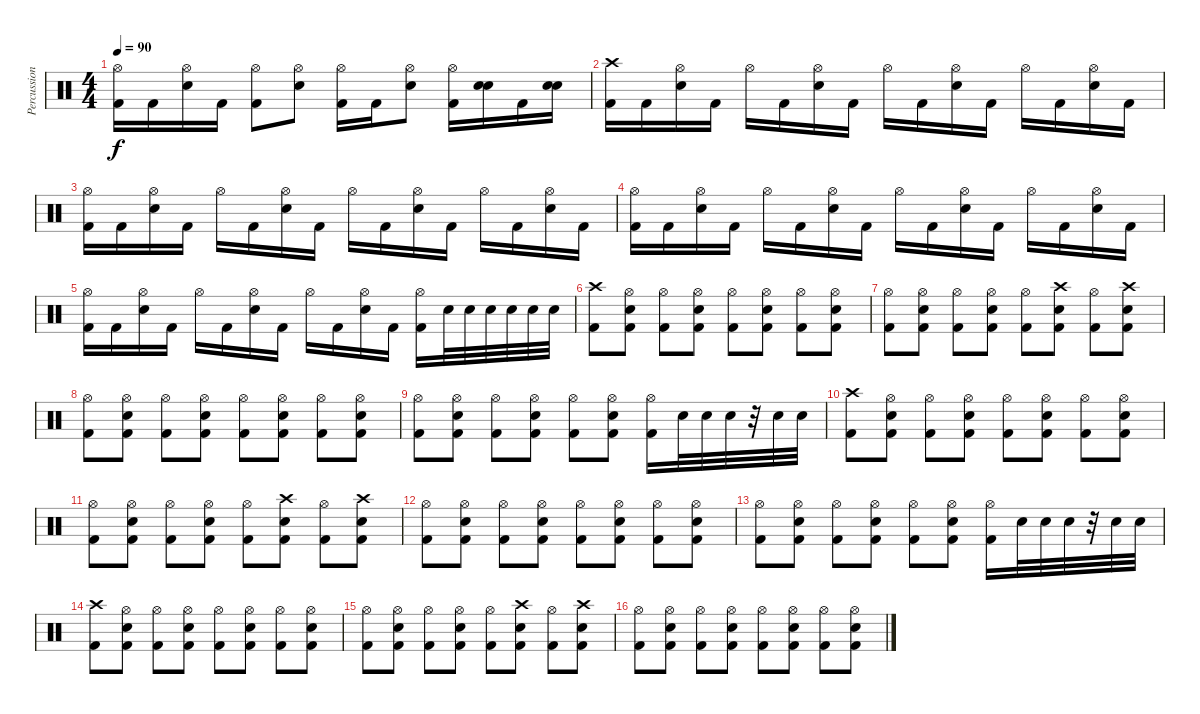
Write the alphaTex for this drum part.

\track ("Percussion" "Percussion") {instrument percussion}
\staff {score}
\articulation defaults
\ts (4 4)
\tempo 90
\clef neutral
\ks c
("Hi-Hat (open)" "Kick (hit) 2").16{dy f} "Kick (hit) 2".16 ("Hi-Hat (open)" "Electric Snare (hit)").16 "Kick (hit) 2".16 ("Hi-Hat (open)" "Kick (hit) 2").8 ("Hi-Hat (open)" "Electric Snare (hit)").8 ("Hi-Hat (open)" "Kick (hit) 2").16 "Kick (hit) 2".16 ("Hi-Hat (open)" "Electric Snare (hit)").8 ("Hi-Hat (open)" "Kick (hit) 2").16 ("Electric Snare (hit)" "Electric Snare (hit)").16 "Kick (hit) 2".16 ("Electric Snare (hit)" "Electric Snare (hit)").16 |
("Crash high (hit)" "Kick (hit) 2").16 "Kick (hit) 2".16 ("Hi-Hat (open)" "Electric Snare (hit)").16 "Kick (hit) 2".16 "Hi-Hat (open)".16 "Kick (hit) 2".16 ("Hi-Hat (open)" "Electric Snare (hit)").16 "Kick (hit) 2".16 "Hi-Hat (open)".16 "Kick (hit) 2".16 ("Hi-Hat (open)" "Electric Snare (hit)").16 "Kick (hit) 2".16 "Hi-Hat (open)".16 "Kick (hit) 2".16 ("Hi-Hat (open)" "Electric Snare (hit)").16 "Kick (hit) 2".16 |
("Hi-Hat (open)" "Kick (hit) 2").16 "Kick (hit) 2".16 ("Hi-Hat (open)" "Electric Snare (hit)").16 "Kick (hit) 2".16 "Hi-Hat (open)".16 "Kick (hit) 2".16 ("Hi-Hat (open)" "Electric Snare (hit)").16 "Kick (hit) 2".16 "Hi-Hat (open)".16 "Kick (hit) 2".16 ("Hi-Hat (open)" "Electric Snare (hit)").16 "Kick (hit) 2".16 "Hi-Hat (open)".16 "Kick (hit) 2".16 ("Hi-Hat (open)" "Electric Snare (hit)").16 "Kick (hit) 2".16 |
("Hi-Hat (open)" "Kick (hit) 2").16 "Kick (hit) 2".16 ("Hi-Hat (open)" "Electric Snare (hit)").16 "Kick (hit) 2".16 "Hi-Hat (open)".16 "Kick (hit) 2".16 ("Hi-Hat (open)" "Electric Snare (hit)").16 "Kick (hit) 2".16 "Hi-Hat (open)".16 "Kick (hit) 2".16 ("Hi-Hat (open)" "Electric Snare (hit)").16 "Kick (hit) 2".16 "Hi-Hat (open)".16 "Kick (hit) 2".16 ("Hi-Hat (open)" "Electric Snare (hit)").16 "Kick (hit) 2".16 |
("Hi-Hat (open)" "Kick (hit) 2").16 "Kick (hit) 2".16 ("Hi-Hat (open)" "Electric Snare (hit)").16 "Kick (hit) 2".16 "Hi-Hat (open)".16 "Kick (hit) 2".16 ("Hi-Hat (open)" "Electric Snare (hit)").16 "Kick (hit) 2".16 "Hi-Hat (open)".16 "Kick (hit) 2".16 ("Hi-Hat (open)" "Electric Snare (hit)").16 "Kick (hit) 2".16 ("Hi-Hat (open)" "Kick (hit) 2").16 "Electric Snare (hit)".32 "Electric Snare (hit)".32 "Electric Snare (hit)".32 "Electric Snare (hit)".32 "Electric Snare (hit)".32 "Electric Snare (hit)".32 |
("Crash high (hit)" "Kick (hit) 2").8 ("Hi-Hat (open)" "Electric Snare (hit)" "Kick (hit) 2").8 ("Hi-Hat (open)" "Kick (hit) 2").8 ("Hi-Hat (open)" "Electric Snare (hit)" "Kick (hit) 2").8 ("Hi-Hat (open)" "Kick (hit) 2").8 ("Hi-Hat (open)" "Electric Snare (hit)" "Kick (hit) 2").8 ("Hi-Hat (open)" "Kick (hit) 2").8 ("Hi-Hat (open)" "Electric Snare (hit)" "Kick (hit) 2").8 |
("Hi-Hat (open)" "Kick (hit) 2").8 ("Hi-Hat (open)" "Electric Snare (hit)" "Kick (hit) 2").8 ("Hi-Hat (open)" "Kick (hit) 2").8 ("Hi-Hat (open)" "Electric Snare (hit)" "Kick (hit) 2").8 ("Hi-Hat (open)" "Kick (hit) 2").8 ("Crash high (hit)" "Electric Snare (hit)" "Kick (hit) 2").8 ("Hi-Hat (open)" "Kick (hit) 2").8 ("Crash high (hit)" "Electric Snare (hit)" "Kick (hit) 2").8 |
("Hi-Hat (open)" "Kick (hit) 2").8 ("Hi-Hat (open)" "Electric Snare (hit)" "Kick (hit) 2").8 ("Hi-Hat (open)" "Kick (hit) 2").8 ("Hi-Hat (open)" "Electric Snare (hit)" "Kick (hit) 2").8 ("Hi-Hat (open)" "Kick (hit) 2").8 ("Hi-Hat (open)" "Electric Snare (hit)" "Kick (hit) 2").8 ("Hi-Hat (open)" "Kick (hit) 2").8 ("Hi-Hat (open)" "Electric Snare (hit)" "Kick (hit) 2").8 |
("Hi-Hat (open)" "Kick (hit) 2").8 ("Hi-Hat (open)" "Electric Snare (hit)" "Kick (hit) 2").8 ("Hi-Hat (open)" "Kick (hit) 2").8 ("Hi-Hat (open)" "Electric Snare (hit)" "Kick (hit) 2").8 ("Hi-Hat (open)" "Kick (hit) 2").8 ("Hi-Hat (open)" "Electric Snare (hit)" "Kick (hit) 2").8 ("Hi-Hat (open)" "Kick (hit) 2").16 "Electric Snare (hit)".32 "Electric Snare (hit)".32 "Electric Snare (hit)".32 r.32 "Electric Snare (hit)".32 "Electric Snare (hit)".32 |
("Crash high (hit)" "Kick (hit) 2").8 ("Hi-Hat (open)" "Electric Snare (hit)" "Kick (hit) 2").8 ("Hi-Hat (open)" "Kick (hit) 2").8 ("Hi-Hat (open)" "Electric Snare (hit)" "Kick (hit) 2").8 ("Hi-Hat (open)" "Kick (hit) 2").8 ("Hi-Hat (open)" "Electric Snare (hit)" "Kick (hit) 2").8 ("Hi-Hat (open)" "Kick (hit) 2").8 ("Hi-Hat (open)" "Electric Snare (hit)" "Kick (hit) 2").8 |
("Hi-Hat (open)" "Kick (hit) 2").8 ("Hi-Hat (open)" "Electric Snare (hit)" "Kick (hit) 2").8 ("Hi-Hat (open)" "Kick (hit) 2").8 ("Hi-Hat (open)" "Electric Snare (hit)" "Kick (hit) 2").8 ("Hi-Hat (open)" "Kick (hit) 2").8 ("Crash high (hit)" "Electric Snare (hit)" "Kick (hit) 2").8 ("Hi-Hat (open)" "Kick (hit) 2").8 ("Crash high (hit)" "Electric Snare (hit)" "Kick (hit) 2").8 |
("Hi-Hat (open)" "Kick (hit) 2").8 ("Hi-Hat (open)" "Electric Snare (hit)" "Kick (hit) 2").8 ("Hi-Hat (open)" "Kick (hit) 2").8 ("Hi-Hat (open)" "Electric Snare (hit)" "Kick (hit) 2").8 ("Hi-Hat (open)" "Kick (hit) 2").8 ("Hi-Hat (open)" "Electric Snare (hit)" "Kick (hit) 2").8 ("Hi-Hat (open)" "Kick (hit) 2").8 ("Hi-Hat (open)" "Electric Snare (hit)" "Kick (hit) 2").8 |
("Hi-Hat (open)" "Kick (hit) 2").8 ("Hi-Hat (open)" "Electric Snare (hit)" "Kick (hit) 2").8 ("Hi-Hat (open)" "Kick (hit) 2").8 ("Hi-Hat (open)" "Electric Snare (hit)" "Kick (hit) 2").8 ("Hi-Hat (open)" "Kick (hit) 2").8 ("Hi-Hat (open)" "Electric Snare (hit)" "Kick (hit) 2").8 ("Hi-Hat (open)" "Kick (hit) 2").16 "Electric Snare (hit)".32 "Electric Snare (hit)".32 "Electric Snare (hit)".32 r.32 "Electric Snare (hit)".32 "Electric Snare (hit)".32 |
("Crash high (hit)" "Kick (hit) 2").8 ("Hi-Hat (open)" "Electric Snare (hit)" "Kick (hit) 2").8 ("Hi-Hat (open)" "Kick (hit) 2").8 ("Hi-Hat (open)" "Electric Snare (hit)" "Kick (hit) 2").8 ("Hi-Hat (open)" "Kick (hit) 2").8 ("Hi-Hat (open)" "Electric Snare (hit)" "Kick (hit) 2").8 ("Hi-Hat (open)" "Kick (hit) 2").8 ("Hi-Hat (open)" "Electric Snare (hit)" "Kick (hit) 2").8 |
("Hi-Hat (open)" "Kick (hit) 2").8 ("Hi-Hat (open)" "Electric Snare (hit)" "Kick (hit) 2").8 ("Hi-Hat (open)" "Kick (hit) 2").8 ("Hi-Hat (open)" "Electric Snare (hit)" "Kick (hit) 2").8 ("Hi-Hat (open)" "Kick (hit) 2").8 ("Crash high (hit)" "Electric Snare (hit)" "Kick (hit) 2").8 ("Hi-Hat (open)" "Kick (hit) 2").8 ("Crash high (hit)" "Electric Snare (hit)" "Kick (hit) 2").8 |
("Hi-Hat (open)" "Kick (hit) 2").8 ("Hi-Hat (open)" "Electric Snare (hit)" "Kick (hit) 2").8 ("Hi-Hat (open)" "Kick (hit) 2").8 ("Hi-Hat (open)" "Electric Snare (hit)" "Kick (hit) 2").8 ("Hi-Hat (open)" "Kick (hit) 2").8 ("Hi-Hat (open)" "Electric Snare (hit)" "Kick (hit) 2").8 ("Hi-Hat (open)" "Kick (hit) 2").8 ("Hi-Hat (open)" "Electric Snare (hit)" "Kick (hit) 2").8
